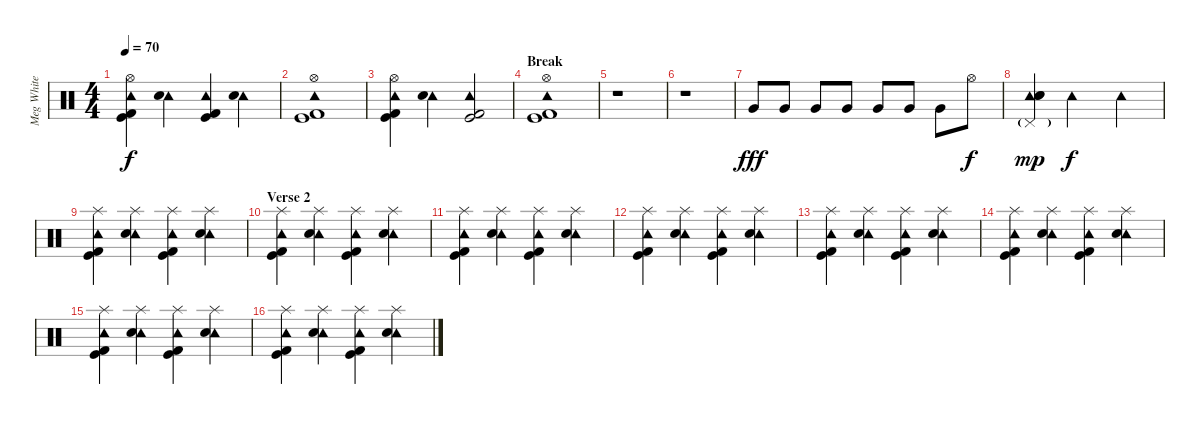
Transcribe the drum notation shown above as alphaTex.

\track ("Meg White (Drums)" "Meg White ") {instrument percussion}
\staff {score}
\articulation defaults
\ts (4 4)
\tempo 70
\clef neutral
\ks c
("Tambourine (hit)" "Kick (hit)" "Kick (hit) 2" "Hi-Hat (open)").4{dy f} ("Tambourine (hit)" "Electric Snare (hit)").4 ("Tambourine (hit)" "Kick (hit)" "Kick (hit) 2").4 ("Tambourine (hit)" "Electric Snare (hit)").4 |
("Tambourine (hit)" "Kick (hit)" "Kick (hit) 2" "Hi-Hat (open)").1 |
("Tambourine (hit)" "Kick (hit)" "Kick (hit) 2" "Hi-Hat (open)").4 ("Tambourine (hit)" "Electric Snare (hit)").4 ("Tambourine (hit)" "Kick (hit)" "Kick (hit) 2").2 |
\section ("" "Break ")
("Tambourine (hit)" "Kick (hit)" "Kick (hit) 2" "Hi-Hat (open)").1 |
r.1 |
r.1 |
"Very Low Tom (hit)".8{dy fff} "Very Low Tom (hit)".8 "Very Low Tom (hit)".8 "Very Low Tom (hit)".8 "Very Low Tom (hit)".8 "Very Low Tom (hit)".8 "Very Low Tom (hit)".8 "Hi-Hat (open)".8{dy f} |
("Tambourine (hit)" "Electric Snare (hit)" "Snare (hit) 2" "Pedal Hi-Hat (hit)"{g}).4{dy mp} "Tambourine (hit)".2{dy f} "Tambourine (hit)".4 |
("Tambourine (hit)" "Kick (hit)" "Kick (hit) 2" "Splash (hit)").4 ("Tambourine (hit)" "Electric Snare (hit)" "Splash (hit)").4 ("Tambourine (hit)" "Kick (hit)" "Kick (hit) 2" "Splash (hit)").4 ("Tambourine (hit)" "Electric Snare (hit)" "Splash (hit)").4 |
\section ("" "Verse 2")
("Tambourine (hit)" "Kick (hit)" "Kick (hit) 2" "Splash (hit)").4 ("Tambourine (hit)" "Electric Snare (hit)" "Splash (hit)").4 ("Tambourine (hit)" "Kick (hit)" "Kick (hit) 2" "Splash (hit)").4 ("Tambourine (hit)" "Electric Snare (hit)" "Splash (hit)").4 |
("Tambourine (hit)" "Kick (hit)" "Kick (hit) 2" "Splash (hit)").4 ("Tambourine (hit)" "Electric Snare (hit)" "Splash (hit)").4 ("Tambourine (hit)" "Kick (hit)" "Kick (hit) 2" "Splash (hit)").4 ("Tambourine (hit)" "Electric Snare (hit)" "Splash (hit)").4 |
("Tambourine (hit)" "Kick (hit)" "Kick (hit) 2" "Splash (hit)").4 ("Tambourine (hit)" "Electric Snare (hit)" "Splash (hit)").4 ("Tambourine (hit)" "Kick (hit)" "Kick (hit) 2" "Splash (hit)").4 ("Tambourine (hit)" "Electric Snare (hit)" "Splash (hit)").4 |
("Tambourine (hit)" "Kick (hit)" "Kick (hit) 2" "Splash (hit)").4 ("Tambourine (hit)" "Electric Snare (hit)" "Splash (hit)").4 ("Tambourine (hit)" "Kick (hit)" "Kick (hit) 2" "Splash (hit)").4 ("Tambourine (hit)" "Electric Snare (hit)" "Splash (hit)").4 |
("Tambourine (hit)" "Kick (hit)" "Kick (hit) 2" "Splash (hit)").4 ("Tambourine (hit)" "Electric Snare (hit)" "Splash (hit)").4 ("Tambourine (hit)" "Kick (hit)" "Kick (hit) 2" "Splash (hit)").4 ("Tambourine (hit)" "Electric Snare (hit)" "Splash (hit)").4 |
("Tambourine (hit)" "Kick (hit)" "Kick (hit) 2" "Splash (hit)").4 ("Tambourine (hit)" "Electric Snare (hit)" "Splash (hit)").4 ("Tambourine (hit)" "Kick (hit)" "Kick (hit) 2" "Splash (hit)").4 ("Tambourine (hit)" "Electric Snare (hit)" "Splash (hit)").4 |
("Tambourine (hit)" "Kick (hit)" "Kick (hit) 2" "Splash (hit)").4 ("Tambourine (hit)" "Electric Snare (hit)" "Splash (hit)").4 ("Tambourine (hit)" "Kick (hit)" "Kick (hit) 2" "Splash (hit)").4 ("Tambourine (hit)" "Electric Snare (hit)" "Splash (hit)").4
